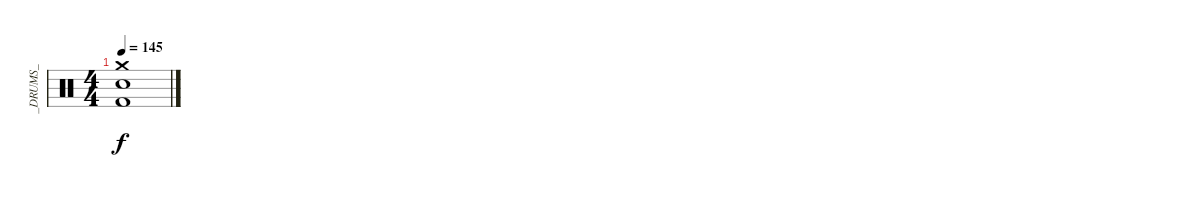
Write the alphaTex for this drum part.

\track ("_DRUMS_" "_DRUMS_") {instrument percussion}
\staff {score}
\articulation defaults
\ts (4 4)
\tempo 145
\clef neutral
\ks c
("Crash medium (hit)" "Electric Snare (hit)" "Kick (hit) 2").1{dy f}
